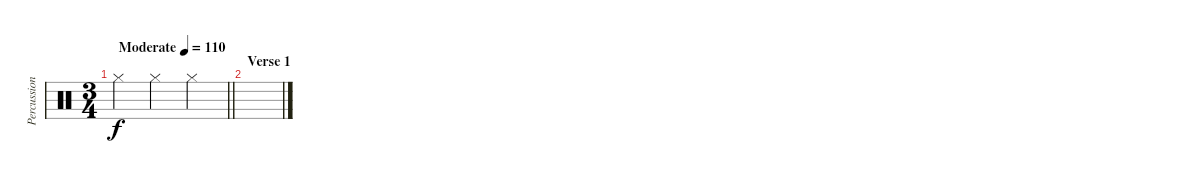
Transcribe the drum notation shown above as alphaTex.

\track ("Percussion" "Percussion") {instrument percussion}
\staff {score}
\articulation defaults
\ts (3 4)
\tempo (110 "Moderate")
\clef neutral
\barLineRight lightlight
\ks c "Hi-Hat (closed)".4{dy f} "Hi-Hat (closed)".4 "Hi-Hat (closed)".4
|
\section ("" "Verse 1")
